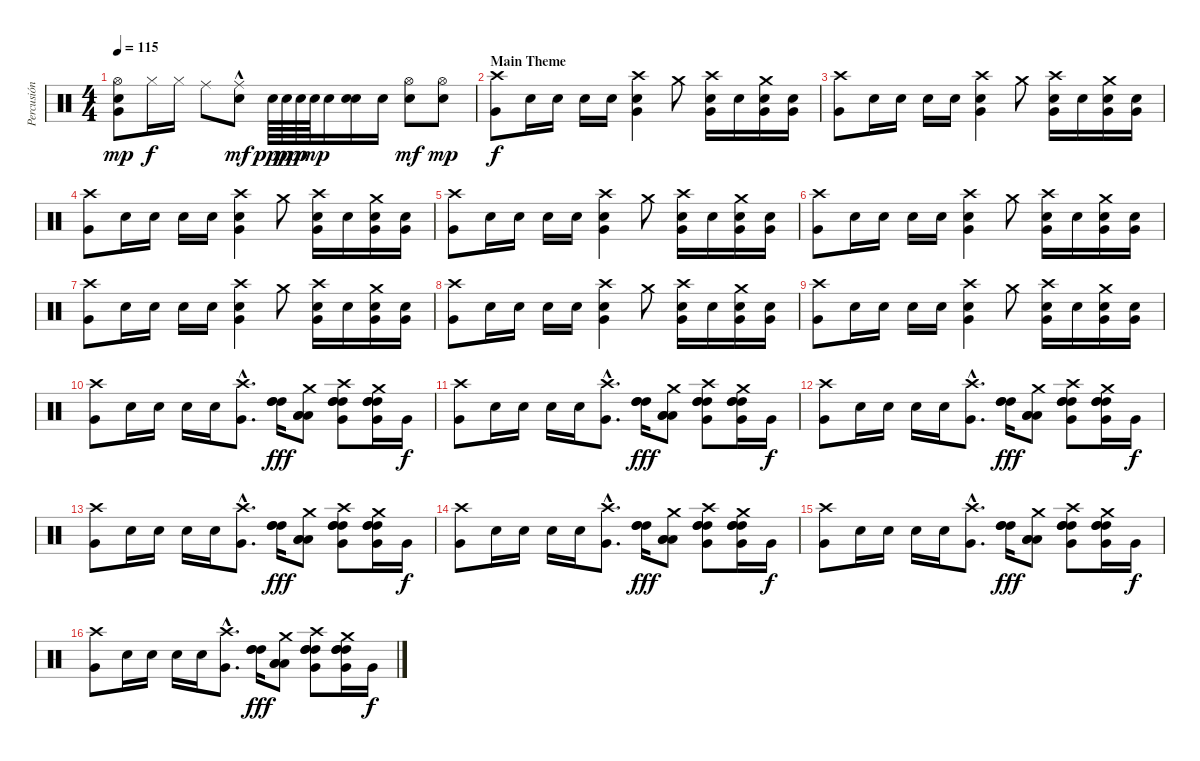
\track ("Percusión" "Percusión") {instrument percussion}
\staff {score}
\articulation defaults
\ts (4 4)
\tempo 115
\clef neutral
\ks c
("Hi-Hat (open)" "Snare (hit) 2" "Very Low Tom (hit)").8{dy mp} "Hi-Hat (closed)".16{dy f} "Hi-Hat (closed)".16 "Ride (middle)".8 ("Ride (middle)"{hac} "Snare (hit) 2").8{dy mf} "Electric Snare (hit)".64{dy ppp} "Electric Snare (hit)".64{dy pp} "Electric Snare (hit)".64{dy p} "Electric Snare (hit)".64{dy mp} "Electric Snare (hit)".16 ("Electric Snare (hit)" "Snare (hit) 2").16 "Electric Snare (hit)".16 ("Hi-Hat (open)" "Snare (hit) 2").8{dy mf} ("Hi-Hat (open)" "Snare (hit) 2").8{dy mp} |
\section ("" "Main Theme")
("Crash high (hit)" "Very Low Tom (hit)").8{dy f} "Electric Snare (hit)".16 "Electric Snare (hit)".16 "Electric Snare (hit)".16 "Electric Snare (hit)".16 ("Crash high (hit)" "Electric Snare (hit)" "Very Low Tom (hit)").4 "Crash medium (hit)".8 ("Crash high (hit)" "Electric Snare (hit)" "Very Low Tom (hit)").16 "Electric Snare (hit)".16 ("Crash medium (hit)" "Electric Snare (hit)" "Very Low Tom (hit)").16 ("Electric Snare (hit)" "Very Low Tom (hit)").16 |
("Crash high (hit)" "Very Low Tom (hit)").8 "Electric Snare (hit)".16 "Electric Snare (hit)".16 "Electric Snare (hit)".16 "Electric Snare (hit)".16 ("Crash high (hit)" "Electric Snare (hit)" "Very Low Tom (hit)").4 "Crash medium (hit)".8 ("Crash high (hit)" "Electric Snare (hit)" "Very Low Tom (hit)").16 "Electric Snare (hit)".16 ("Crash medium (hit)" "Electric Snare (hit)" "Very Low Tom (hit)").16 ("Electric Snare (hit)" "Very Low Tom (hit)").16 |
("Crash high (hit)" "Very Low Tom (hit)").8 "Electric Snare (hit)".16 "Electric Snare (hit)".16 "Electric Snare (hit)".16 "Electric Snare (hit)".16 ("Crash high (hit)" "Electric Snare (hit)" "Very Low Tom (hit)").4 "Crash medium (hit)".8 ("Crash high (hit)" "Electric Snare (hit)" "Very Low Tom (hit)").16 "Electric Snare (hit)".16 ("Crash medium (hit)" "Electric Snare (hit)" "Very Low Tom (hit)").16 ("Electric Snare (hit)" "Very Low Tom (hit)").16 |
("Crash high (hit)" "Very Low Tom (hit)").8 "Electric Snare (hit)".16 "Electric Snare (hit)".16 "Electric Snare (hit)".16 "Electric Snare (hit)".16 ("Crash high (hit)" "Electric Snare (hit)" "Very Low Tom (hit)").4 "Crash medium (hit)".8 ("Crash high (hit)" "Electric Snare (hit)" "Very Low Tom (hit)").16 "Electric Snare (hit)".16 ("Crash medium (hit)" "Electric Snare (hit)" "Very Low Tom (hit)").16 ("Electric Snare (hit)" "Very Low Tom (hit)").16 |
("Crash high (hit)" "Very Low Tom (hit)").8 "Electric Snare (hit)".16 "Electric Snare (hit)".16 "Electric Snare (hit)".16 "Electric Snare (hit)".16 ("Crash high (hit)" "Electric Snare (hit)" "Very Low Tom (hit)").4 "Crash medium (hit)".8 ("Crash high (hit)" "Electric Snare (hit)" "Very Low Tom (hit)").16 "Electric Snare (hit)".16 ("Crash medium (hit)" "Electric Snare (hit)" "Very Low Tom (hit)").16 ("Electric Snare (hit)" "Very Low Tom (hit)").16 |
("Crash high (hit)" "Very Low Tom (hit)").8 "Electric Snare (hit)".16 "Electric Snare (hit)".16 "Electric Snare (hit)".16 "Electric Snare (hit)".16 ("Crash high (hit)" "Electric Snare (hit)" "Very Low Tom (hit)").4 "Crash medium (hit)".8 ("Crash high (hit)" "Electric Snare (hit)" "Very Low Tom (hit)").16 "Electric Snare (hit)".16 ("Crash medium (hit)" "Electric Snare (hit)" "Very Low Tom (hit)").16 ("Electric Snare (hit)" "Very Low Tom (hit)").16 |
("Crash high (hit)" "Very Low Tom (hit)").8 "Electric Snare (hit)".16 "Electric Snare (hit)".16 "Electric Snare (hit)".16 "Electric Snare (hit)".16 ("Crash high (hit)" "Electric Snare (hit)" "Very Low Tom (hit)").4 "Crash medium (hit)".8 ("Crash high (hit)" "Electric Snare (hit)" "Very Low Tom (hit)").16 "Electric Snare (hit)".16 ("Crash medium (hit)" "Electric Snare (hit)" "Very Low Tom (hit)").16 ("Electric Snare (hit)" "Very Low Tom (hit)").16 |
("Crash high (hit)" "Very Low Tom (hit)").8 "Electric Snare (hit)".16 "Electric Snare (hit)".16 "Electric Snare (hit)".16 "Electric Snare (hit)".16 ("Crash high (hit)" "Electric Snare (hit)" "Very Low Tom (hit)").4 "Crash medium (hit)".8 ("Crash high (hit)" "Electric Snare (hit)" "Very Low Tom (hit)").16 "Electric Snare (hit)".16 ("Crash medium (hit)" "Electric Snare (hit)" "Very Low Tom (hit)").16 ("Electric Snare (hit)" "Very Low Tom (hit)").16 |
("Crash high (hit)" "Very Low Tom (hit)").8 "Electric Snare (hit)".16 "Electric Snare (hit)".16 "Electric Snare (hit)".16 "Electric Snare (hit)".16 ("Crash high (hit)"{hac} "Very Low Tom (hit)"{hac}).8{d} ("High Tom (hit)" "High Tom (hit)" "High Tom (hit)").16{dy fff} ("Crash medium (hit)" "Low Tom (hit)" "Low Tom (hit)" "Low Tom (hit)").8 ("Crash high (hit)" "High Tom (hit)" "High Tom (hit)" "High Tom (hit)" "Very Low Tom (hit)").8 ("Crash medium (hit)" "High Tom (hit)" "High Tom (hit)" "High Tom (hit)" "Very Low Tom (hit)").16 "Very Low Tom (hit)".16{dy f} |
("Crash high (hit)" "Very Low Tom (hit)").8 "Electric Snare (hit)".16 "Electric Snare (hit)".16 "Electric Snare (hit)".16 "Electric Snare (hit)".16 ("Crash high (hit)"{hac} "Very Low Tom (hit)"{hac}).8{d} ("High Tom (hit)" "High Tom (hit)" "High Tom (hit)").16{dy fff} ("Crash medium (hit)" "Low Tom (hit)" "Low Tom (hit)" "Low Tom (hit)").8 ("Crash high (hit)" "High Tom (hit)" "High Tom (hit)" "High Tom (hit)" "Very Low Tom (hit)").8 ("Crash medium (hit)" "High Tom (hit)" "High Tom (hit)" "High Tom (hit)" "Very Low Tom (hit)").16 "Very Low Tom (hit)".16{dy f} |
("Crash high (hit)" "Very Low Tom (hit)").8 "Electric Snare (hit)".16 "Electric Snare (hit)".16 "Electric Snare (hit)".16 "Electric Snare (hit)".16 ("Crash high (hit)"{hac} "Very Low Tom (hit)"{hac}).8{d} ("High Tom (hit)" "High Tom (hit)" "High Tom (hit)").16{dy fff} ("Crash medium (hit)" "Low Tom (hit)" "Low Tom (hit)" "Low Tom (hit)").8 ("Crash high (hit)" "High Tom (hit)" "High Tom (hit)" "High Tom (hit)" "Very Low Tom (hit)").8 ("Crash medium (hit)" "High Tom (hit)" "High Tom (hit)" "High Tom (hit)" "Very Low Tom (hit)").16 "Very Low Tom (hit)".16{dy f} |
("Crash high (hit)" "Very Low Tom (hit)").8 "Electric Snare (hit)".16 "Electric Snare (hit)".16 "Electric Snare (hit)".16 "Electric Snare (hit)".16 ("Crash high (hit)"{hac} "Very Low Tom (hit)"{hac}).8{d} ("High Tom (hit)" "High Tom (hit)" "High Tom (hit)").16{dy fff} ("Crash medium (hit)" "Low Tom (hit)" "Low Tom (hit)" "Low Tom (hit)").8 ("Crash high (hit)" "High Tom (hit)" "High Tom (hit)" "High Tom (hit)" "Very Low Tom (hit)").8 ("Crash medium (hit)" "High Tom (hit)" "High Tom (hit)" "High Tom (hit)" "Very Low Tom (hit)").16 "Very Low Tom (hit)".16{dy f} |
("Crash high (hit)" "Very Low Tom (hit)").8 "Electric Snare (hit)".16 "Electric Snare (hit)".16 "Electric Snare (hit)".16 "Electric Snare (hit)".16 ("Crash high (hit)"{hac} "Very Low Tom (hit)"{hac}).8{d} ("High Tom (hit)" "High Tom (hit)" "High Tom (hit)").16{dy fff} ("Crash medium (hit)" "Low Tom (hit)" "Low Tom (hit)" "Low Tom (hit)").8 ("Crash high (hit)" "High Tom (hit)" "High Tom (hit)" "High Tom (hit)" "Very Low Tom (hit)").8 ("Crash medium (hit)" "High Tom (hit)" "High Tom (hit)" "High Tom (hit)" "Very Low Tom (hit)").16 "Very Low Tom (hit)".16{dy f} |
("Crash high (hit)" "Very Low Tom (hit)").8 "Electric Snare (hit)".16 "Electric Snare (hit)".16 "Electric Snare (hit)".16 "Electric Snare (hit)".16 ("Crash high (hit)"{hac} "Very Low Tom (hit)"{hac}).8{d} ("High Tom (hit)" "High Tom (hit)" "High Tom (hit)").16{dy fff} ("Crash medium (hit)" "Low Tom (hit)" "Low Tom (hit)" "Low Tom (hit)").8 ("Crash high (hit)" "High Tom (hit)" "High Tom (hit)" "High Tom (hit)" "Very Low Tom (hit)").8 ("Crash medium (hit)" "High Tom (hit)" "High Tom (hit)" "High Tom (hit)" "Very Low Tom (hit)").16 "Very Low Tom (hit)".16{dy f} |
("Crash high (hit)" "Very Low Tom (hit)").8 "Electric Snare (hit)".16 "Electric Snare (hit)".16 "Electric Snare (hit)".16 "Electric Snare (hit)".16 ("Crash high (hit)"{hac} "Very Low Tom (hit)"{hac}).8{d} ("High Tom (hit)" "High Tom (hit)" "High Tom (hit)").16{dy fff} ("Crash medium (hit)" "Low Tom (hit)" "Low Tom (hit)" "Low Tom (hit)").8 ("Crash high (hit)" "High Tom (hit)" "High Tom (hit)" "High Tom (hit)" "Very Low Tom (hit)").8 ("Crash medium (hit)" "High Tom (hit)" "High Tom (hit)" "High Tom (hit)" "Very Low Tom (hit)").16 "Very Low Tom (hit)".16{dy f}
